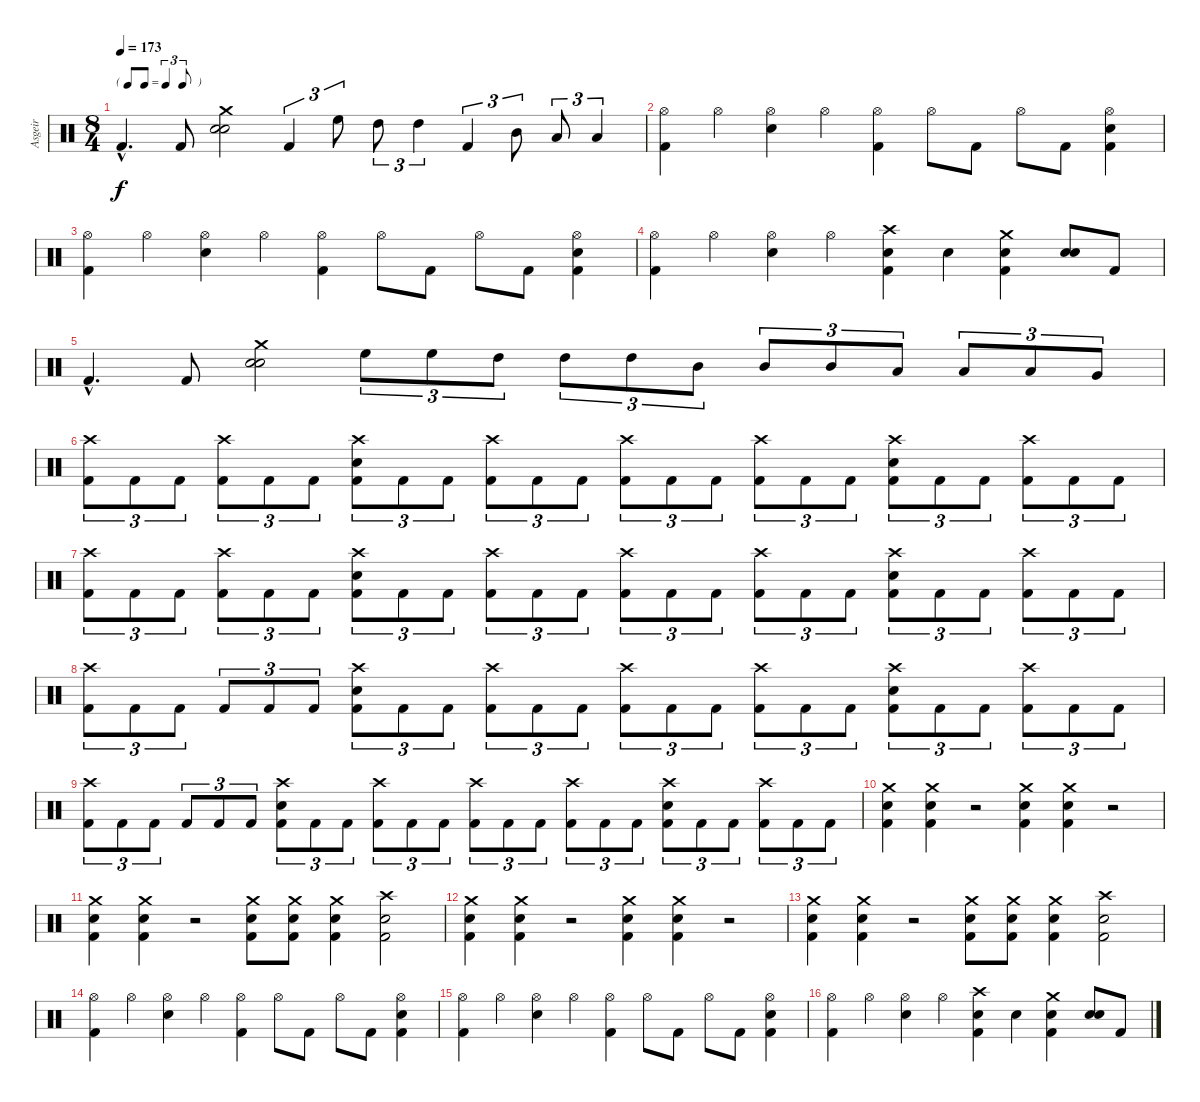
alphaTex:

\track ("Asgeir" "Asgeir") {instrument percussion}
\staff {score}
\articulation defaults
\ts (8 4)
\tf triplet8th
\tempo 173
\clef neutral
\ks c "Kick (hit) 2"{hac}.4{d dy f} "Kick (hit) 2".8
("Snare (hit) 2" "Snare (hit) 2" "Crash medium (hit)").2 "Kick (hit) 2".4{tu (3 2)} "High Floor Tom (hit)".8{tu (3 2)} "High Tom (hit)".8{tu (3 2)} "High Tom (hit)".4{tu (3 2)} "Kick (hit) 2".4{tu (3 2)} "Mid Tom (hit)".8{tu (3 2)} "Low Tom (hit)".8{tu (3 2)} "Low Tom (hit)".4{tu (3 2)} |
("Kick (hit) 2" "Hi-Hat (open)").4 "Hi-Hat (open)".4 ("Snare (hit) 2" "Hi-Hat (open)").4 "Hi-Hat (open)".4 ("Kick (hit) 2" "Hi-Hat (open)").4 "Hi-Hat (open)".8 "Kick (hit) 2".8 "Hi-Hat (open)".8 "Kick (hit) 2".8 ("Kick (hit) 2" "Snare (hit) 2" "Hi-Hat (open)").4 |
("Kick (hit) 2" "Hi-Hat (open)").4 "Hi-Hat (open)".4 ("Snare (hit) 2" "Hi-Hat (open)").4 "Hi-Hat (open)".4 ("Kick (hit) 2" "Hi-Hat (open)").4 "Hi-Hat (open)".8 "Kick (hit) 2".8 "Hi-Hat (open)".8 "Kick (hit) 2".8 ("Kick (hit) 2" "Snare (hit) 2" "Hi-Hat (open)").4 |
("Kick (hit) 2" "Hi-Hat (open)").4 "Hi-Hat (open)".4 ("Snare (hit) 2" "Hi-Hat (open)").4 "Hi-Hat (open)".4 ("Kick (hit) 2" "Snare (hit) 2" "Crash high (hit)").4 "Snare (hit) 2".4 ("Kick (hit) 2" "Snare (hit) 2" "Crash medium (hit)").4 ("Snare (hit) 2" "Snare (hit) 2").8{bd 480} "Kick (hit) 2".8 |
"Kick (hit) 2"{hac}.4{d} "Kick (hit) 2".8 ("Snare (hit) 2" "Snare (hit) 2" "Crash medium (hit)").2 "High Floor Tom (hit)".8{tu (3 2)} "High Floor Tom (hit)".8{tu (3 2)} "High Tom (hit)".8{tu (3 2)} "High Tom (hit)".8{tu (3 2)} "High Tom (hit)".8{tu (3 2)} "Mid Tom (hit)".8{tu (3 2)} "Mid Tom (hit)".8{tu (3 2)} "Mid Tom (hit)".8{tu (3 2)} "Low Tom (hit)".8{tu (3 2)} "Low Tom (hit)".8{tu (3 2)} "Low Tom (hit)".8{tu (3 2)} "Very Low Tom (hit)".8{tu (3 2)} |
("Kick (hit) 2" "Crash high (hit)").8{tu (3 2)} "Kick (hit) 2".8{tu (3 2)} "Kick (hit) 2".8{tu (3 2)} ("Kick (hit) 2" "Crash high (hit)").8{tu (3 2)} "Kick (hit) 2".8{tu (3 2)} "Kick (hit) 2".8{tu (3 2)} ("Kick (hit) 2" "Snare (hit) 2" "Crash high (hit)").8{tu (3 2)} "Kick (hit) 2".8{tu (3 2)} "Kick (hit) 2".8{tu (3 2)} ("Kick (hit) 2" "Crash high (hit)").8{tu (3 2)} "Kick (hit) 2".8{tu (3 2)} "Kick (hit) 2".8{tu (3 2)} ("Kick (hit) 2" "Crash high (hit)").8{tu (3 2)} "Kick (hit) 2".8{tu (3 2)} "Kick (hit) 2".8{tu (3 2)} ("Kick (hit) 2" "Crash high (hit)").8{tu (3 2)} "Kick (hit) 2".8{tu (3 2)} "Kick (hit) 2".8{tu (3 2)} ("Kick (hit) 2" "Snare (hit) 2" "Crash high (hit)").8{tu (3 2)} "Kick (hit) 2".8{tu (3 2)} "Kick (hit) 2".8{tu (3 2)} ("Kick (hit) 2" "Crash high (hit)").8{tu (3 2)} "Kick (hit) 2".8{tu (3 2)} "Kick (hit) 2".8{tu (3 2)} |
("Kick (hit) 2" "Crash high (hit)").8{tu (3 2)} "Kick (hit) 2".8{tu (3 2)} "Kick (hit) 2".8{tu (3 2)} ("Kick (hit) 2" "Crash high (hit)").8{tu (3 2)} "Kick (hit) 2".8{tu (3 2)} "Kick (hit) 2".8{tu (3 2)} ("Kick (hit) 2" "Snare (hit) 2" "Crash high (hit)").8{tu (3 2)} "Kick (hit) 2".8{tu (3 2)} "Kick (hit) 2".8{tu (3 2)} ("Kick (hit) 2" "Crash high (hit)").8{tu (3 2)} "Kick (hit) 2".8{tu (3 2)} "Kick (hit) 2".8{tu (3 2)} ("Kick (hit) 2" "Crash high (hit)").8{tu (3 2)} "Kick (hit) 2".8{tu (3 2)} "Kick (hit) 2".8{tu (3 2)} ("Kick (hit) 2" "Crash high (hit)").8{tu (3 2)} "Kick (hit) 2".8{tu (3 2)} "Kick (hit) 2".8{tu (3 2)} ("Kick (hit) 2" "Snare (hit) 2" "Crash high (hit)").8{tu (3 2)} "Kick (hit) 2".8{tu (3 2)} "Kick (hit) 2".8{tu (3 2)} ("Kick (hit) 2" "Crash high (hit)").8{tu (3 2)} "Kick (hit) 2".8{tu (3 2)} "Kick (hit) 2".8{tu (3 2)} |
("Kick (hit) 2" "Crash high (hit)").8{tu (3 2)} "Kick (hit) 2".8{tu (3 2)} "Kick (hit) 2".8{tu (3 2)} "Kick (hit) 2".8{tu (3 2)} "Kick (hit) 2".8{tu (3 2)} "Kick (hit) 2".8{tu (3 2)} ("Kick (hit) 2" "Snare (hit) 2" "Crash high (hit)").8{tu (3 2)} "Kick (hit) 2".8{tu (3 2)} "Kick (hit) 2".8{tu (3 2)} ("Kick (hit) 2" "Crash high (hit)").8{tu (3 2)} "Kick (hit) 2".8{tu (3 2)} "Kick (hit) 2".8{tu (3 2)} ("Kick (hit) 2" "Crash high (hit)").8{tu (3 2)} "Kick (hit) 2".8{tu (3 2)} "Kick (hit) 2".8{tu (3 2)} ("Kick (hit) 2" "Crash high (hit)").8{tu (3 2)} "Kick (hit) 2".8{tu (3 2)} "Kick (hit) 2".8{tu (3 2)} ("Kick (hit) 2" "Snare (hit) 2" "Crash high (hit)").8{tu (3 2)} "Kick (hit) 2".8{tu (3 2)} "Kick (hit) 2".8{tu (3 2)} ("Kick (hit) 2" "Crash high (hit)").8{tu (3 2)} "Kick (hit) 2".8{tu (3 2)} "Kick (hit) 2".8{tu (3 2)} |
("Kick (hit) 2" "Crash high (hit)").8{tu (3 2)} "Kick (hit) 2".8{tu (3 2)} "Kick (hit) 2".8{tu (3 2)} "Kick (hit) 2".8{tu (3 2)} "Kick (hit) 2".8{tu (3 2)} "Kick (hit) 2".8{tu (3 2)} ("Kick (hit) 2" "Snare (hit) 2" "Crash high (hit)").8{tu (3 2)} "Kick (hit) 2".8{tu (3 2)} "Kick (hit) 2".8{tu (3 2)} ("Kick (hit) 2" "Crash high (hit)").8{tu (3 2)} "Kick (hit) 2".8{tu (3 2)} "Kick (hit) 2".8{tu (3 2)} ("Kick (hit) 2" "Crash high (hit)").8{tu (3 2)} "Kick (hit) 2".8{tu (3 2)} "Kick (hit) 2".8{tu (3 2)} ("Kick (hit) 2" "Crash high (hit)").8{tu (3 2)} "Kick (hit) 2".8{tu (3 2)} "Kick (hit) 2".8{tu (3 2)} ("Kick (hit) 2" "Snare (hit) 2" "Crash high (hit)").8{tu (3 2)} "Kick (hit) 2".8{tu (3 2)} "Kick (hit) 2".8{tu (3 2)} ("Kick (hit) 2" "Crash high (hit)").8{tu (3 2)} "Kick (hit) 2".8{tu (3 2)} "Kick (hit) 2".8{tu (3 2)} |
("Kick (hit) 2" "Snare (hit) 2" "Crash medium (hit)").4 ("Kick (hit) 2" "Snare (hit) 2" "Crash medium (hit)").4 r.2 ("Kick (hit) 2" "Snare (hit) 2" "Crash medium (hit)").4 ("Kick (hit) 2" "Snare (hit) 2" "Crash medium (hit)").4 r.2 |
("Kick (hit) 2" "Snare (hit) 2" "Crash medium (hit)").4 ("Kick (hit) 2" "Snare (hit) 2" "Crash medium (hit)").4 r.2 ("Kick (hit) 2" "Snare (hit) 2" "Crash medium (hit)").8 ("Kick (hit) 2" "Snare (hit) 2" "Crash medium (hit)").8 ("Kick (hit) 2" "Snare (hit) 2" "Crash medium (hit)").4 ("Kick (hit) 2" "Snare (hit) 2" "Crash high (hit)").2 |
("Kick (hit) 2" "Snare (hit) 2" "Crash medium (hit)").4 ("Kick (hit) 2" "Snare (hit) 2" "Crash medium (hit)").4 r.2 ("Kick (hit) 2" "Snare (hit) 2" "Crash medium (hit)").4 ("Kick (hit) 2" "Snare (hit) 2" "Crash medium (hit)").4 r.2 |
("Kick (hit) 2" "Snare (hit) 2" "Crash medium (hit)").4 ("Kick (hit) 2" "Snare (hit) 2" "Crash medium (hit)").4 r.2 ("Kick (hit) 2" "Snare (hit) 2" "Crash medium (hit)").8 ("Kick (hit) 2" "Snare (hit) 2" "Crash medium (hit)").8 ("Kick (hit) 2" "Snare (hit) 2" "Crash medium (hit)").4 ("Kick (hit) 2" "Snare (hit) 2" "Crash high (hit)").2 |
("Kick (hit) 2" "Hi-Hat (open)").4 "Hi-Hat (open)".4 ("Snare (hit) 2" "Hi-Hat (open)").4 "Hi-Hat (open)".4 ("Kick (hit) 2" "Hi-Hat (open)").4 "Hi-Hat (open)".8 "Kick (hit) 2".8 "Hi-Hat (open)".8 "Kick (hit) 2".8 ("Kick (hit) 2" "Snare (hit) 2" "Hi-Hat (open)").4 |
("Kick (hit) 2" "Hi-Hat (open)").4 "Hi-Hat (open)".4 ("Snare (hit) 2" "Hi-Hat (open)").4 "Hi-Hat (open)".4 ("Kick (hit) 2" "Hi-Hat (open)").4 "Hi-Hat (open)".8 "Kick (hit) 2".8 "Hi-Hat (open)".8 "Kick (hit) 2".8 ("Kick (hit) 2" "Snare (hit) 2" "Hi-Hat (open)").4 |
("Kick (hit) 2" "Hi-Hat (open)").4 "Hi-Hat (open)".4 ("Snare (hit) 2" "Hi-Hat (open)").4 "Hi-Hat (open)".4 ("Kick (hit) 2" "Snare (hit) 2" "Crash high (hit)").4 "Snare (hit) 2".4 ("Kick (hit) 2" "Snare (hit) 2" "Crash medium (hit)").4 ("Snare (hit) 2" "Snare (hit) 2").8{bd 480} "Kick (hit) 2".8
